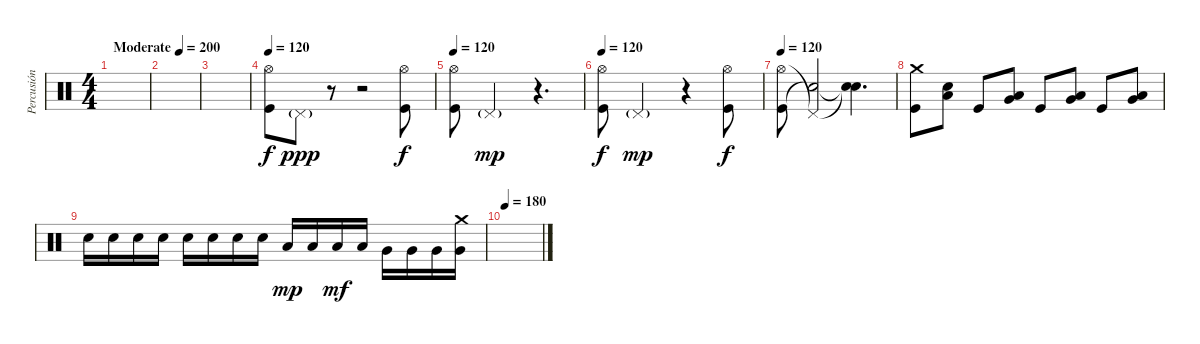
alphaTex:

\track ("Percusión" "Percusión") {instrument percussion}
\staff {score}
\articulation defaults
\ts (4 4)
\tempo (200 "Moderate")
\clef neutral
\ks c
|
|
|
\tempo 120
("Hi-Hat (open)" "Kick (hit)").8 "Pedal Hi-Hat (hit)"{g}.8{dy ppp} r.8 r.2 ("Hi-Hat (open)" "Kick (hit)").8{dy f} |
\tempo 120
("Hi-Hat (open)" "Kick (hit)").8 "Pedal Hi-Hat (hit)"{g}.2{dy mp} r.4{d} |
\tempo 120
("Hi-Hat (open)" "Kick (hit)").8{dy f} "Pedal Hi-Hat (hit)"{g}.2{dy mp} r.4 ("Hi-Hat (open)" "Kick (hit)").8{dy f} |
\tempo 120
("Hi-Hat (open)" "Kick (hit)").8 ("Pedal Hi-Hat (hit)"{t} "Snare (hit)"{t}).2 ("Snare (hit)"{t} "Snare (hit)"{t}).4{d} |
("Crash medium (hit)" "Kick (hit)").8 ("Snare (hit)" "Low Floor Tom (hit)").8 "Kick (hit)".8 ("Very Low Tom (hit)" "Low Floor Tom (hit)").8 "Kick (hit)".8 ("Very Low Tom (hit)" "Low Floor Tom (hit)").8 "Kick (hit)".8 ("Very Low Tom (hit)" "Low Floor Tom (hit)").8 |
"Electric Snare (hit)".16 "Electric Snare (hit)".16 "Electric Snare (hit)".16 "Electric Snare (hit)".16 "Electric Snare (hit)".16 "Electric Snare (hit)".16 "Electric Snare (hit)".16 "Electric Snare (hit)".16 "Low Tom (hit)".16{dy mp} "Low Tom (hit)".16 "Low Tom (hit)".16{dy mf} "Low Tom (hit)".16 "Very Low Tom (hit)".16 "Very Low Tom (hit)".16 "Very Low Tom (hit)".16 ("Very Low Tom (hit)" "Crash medium (hit)").16 |
\tempo 180
